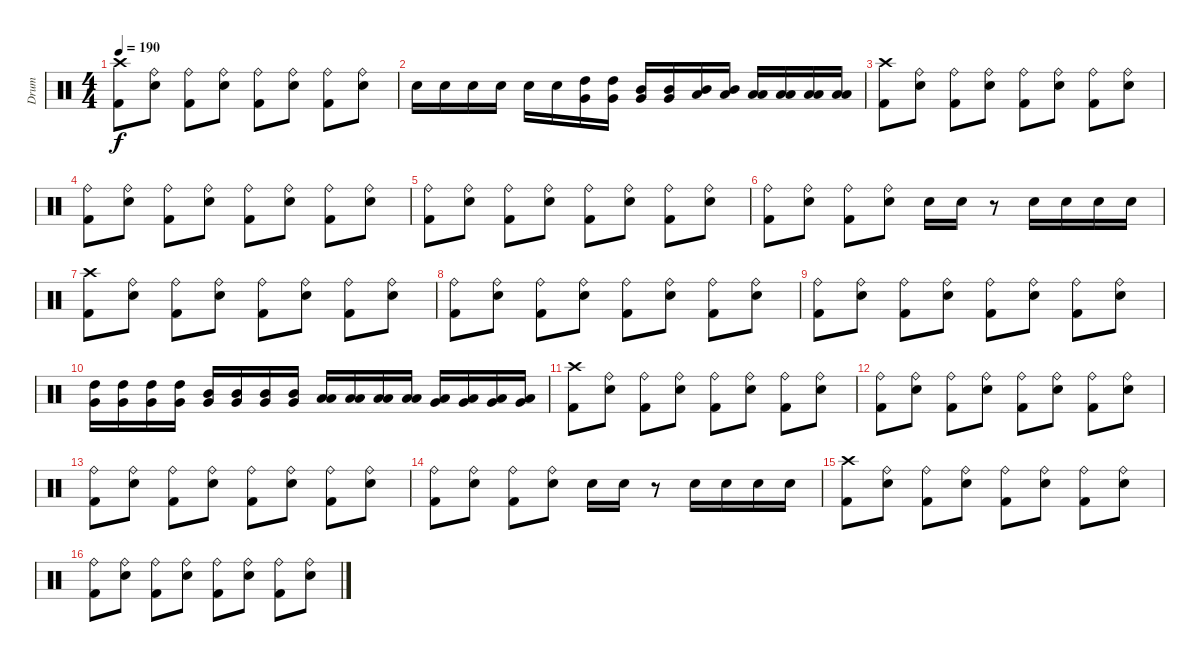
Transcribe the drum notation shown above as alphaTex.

\track ("Drum" "Drum") {instrument percussion}
\staff {score}
\articulation defaults
\ts (4 4)
\tempo 190
\clef neutral
\ks c
("Crash high (hit)" "Kick (hit) 2").8{dy f} ("Ride (bell)" "Snare (hit) 2").8 ("Ride (bell)" "Kick (hit) 2").8 ("Ride (bell)" "Snare (hit) 2").8 ("Ride (bell)" "Kick (hit) 2").8 ("Ride (bell)" "Snare (hit) 2").8 ("Ride (bell)" "Kick (hit) 2").8 ("Ride (bell)" "Snare (hit) 2").8 |
"Snare (hit) 2".16 "Snare (hit) 2".16 "Snare (hit) 2".16 "Snare (hit) 2".16 "Snare (hit) 2".16 "Snare (hit) 2".16 ("High Tom (hit)" "Very Low Tom (hit)").16 ("High Tom (hit)" "Very Low Tom (hit)").16 ("Mid Tom (hit)" "Very Low Tom (hit)").16 ("Mid Tom (hit)" "Very Low Tom (hit)").16 ("Mid Tom (hit)" "Low Floor Tom (hit)").16 ("Mid Tom (hit)" "Low Floor Tom (hit)").16 ("Low Tom (hit)" "Low Floor Tom (hit)").16 ("Low Tom (hit)" "Low Floor Tom (hit)").16 ("Low Tom (hit)" "Low Floor Tom (hit)").16 ("Low Tom (hit)" "Low Floor Tom (hit)").16 |
("Crash high (hit)" "Kick (hit) 2").8 ("Ride (bell)" "Snare (hit) 2").8 ("Ride (bell)" "Kick (hit) 2").8 ("Ride (bell)" "Snare (hit) 2").8 ("Ride (bell)" "Kick (hit) 2").8 ("Ride (bell)" "Snare (hit) 2").8 ("Ride (bell)" "Kick (hit) 2").8 ("Ride (bell)" "Snare (hit) 2").8 |
("Ride (bell)" "Kick (hit) 2").8 ("Ride (bell)" "Snare (hit) 2").8 ("Ride (bell)" "Kick (hit) 2").8 ("Ride (bell)" "Snare (hit) 2").8 ("Ride (bell)" "Kick (hit) 2").8 ("Ride (bell)" "Snare (hit) 2").8 ("Ride (bell)" "Kick (hit) 2").8 ("Ride (bell)" "Snare (hit) 2").8 |
("Ride (bell)" "Kick (hit) 2").8 ("Ride (bell)" "Snare (hit) 2").8 ("Ride (bell)" "Kick (hit) 2").8 ("Ride (bell)" "Snare (hit) 2").8 ("Ride (bell)" "Kick (hit) 2").8 ("Ride (bell)" "Snare (hit) 2").8 ("Ride (bell)" "Kick (hit) 2").8 ("Ride (bell)" "Snare (hit) 2").8 |
("Ride (bell)" "Kick (hit) 2").8 ("Ride (bell)" "Snare (hit) 2").8 ("Ride (bell)" "Kick (hit) 2").8 ("Ride (bell)" "Snare (hit) 2").8 "Snare (hit) 2".16 "Snare (hit) 2".16 r.8 "Snare (hit) 2".16 "Snare (hit) 2".16 "Snare (hit) 2".16 "Snare (hit) 2".16 |
("Crash high (hit)" "Kick (hit) 2").8 ("Ride (bell)" "Snare (hit) 2").8 ("Ride (bell)" "Kick (hit) 2").8 ("Ride (bell)" "Snare (hit) 2").8 ("Ride (bell)" "Kick (hit) 2").8 ("Ride (bell)" "Snare (hit) 2").8 ("Ride (bell)" "Kick (hit) 2").8 ("Ride (bell)" "Snare (hit) 2").8 |
("Ride (bell)" "Kick (hit) 2").8 ("Ride (bell)" "Snare (hit) 2").8 ("Ride (bell)" "Kick (hit) 2").8 ("Ride (bell)" "Snare (hit) 2").8 ("Ride (bell)" "Kick (hit) 2").8 ("Ride (bell)" "Snare (hit) 2").8 ("Ride (bell)" "Kick (hit) 2").8 ("Ride (bell)" "Snare (hit) 2").8 |
("Ride (bell)" "Kick (hit) 2").8 ("Ride (bell)" "Snare (hit) 2").8 ("Ride (bell)" "Kick (hit) 2").8 ("Ride (bell)" "Snare (hit) 2").8 ("Ride (bell)" "Kick (hit) 2").8 ("Ride (bell)" "Snare (hit) 2").8 ("Ride (bell)" "Kick (hit) 2").8 ("Ride (bell)" "Snare (hit) 2").8 |
("High Tom (hit)" "Very Low Tom (hit)").16 ("High Tom (hit)" "Very Low Tom (hit)").16 ("High Tom (hit)" "Very Low Tom (hit)").16 ("High Tom (hit)" "Very Low Tom (hit)").16 ("Mid Tom (hit)" "Very Low Tom (hit)").16 ("Mid Tom (hit)" "Very Low Tom (hit)").16 ("Mid Tom (hit)" "Very Low Tom (hit)").16 ("Mid Tom (hit)" "Very Low Tom (hit)").16 ("Low Tom (hit)" "Low Floor Tom (hit)").16 ("Low Tom (hit)" "Low Floor Tom (hit)").16 ("Low Tom (hit)" "Low Floor Tom (hit)").16 ("Low Tom (hit)" "Low Floor Tom (hit)").16 ("Very Low Tom (hit)" "Low Floor Tom (hit)").16 ("Very Low Tom (hit)" "Low Floor Tom (hit)").16 ("Very Low Tom (hit)" "Low Floor Tom (hit)").16 ("Very Low Tom (hit)" "Low Floor Tom (hit)").16 |
("Crash high (hit)" "Kick (hit) 2").8 ("Ride (bell)" "Snare (hit) 2").8 ("Ride (bell)" "Kick (hit) 2").8 ("Ride (bell)" "Snare (hit) 2").8 ("Ride (bell)" "Kick (hit) 2").8 ("Ride (bell)" "Snare (hit) 2").8 ("Ride (bell)" "Kick (hit) 2").8 ("Ride (bell)" "Snare (hit) 2").8 |
("Ride (bell)" "Kick (hit) 2").8 ("Ride (bell)" "Snare (hit) 2").8 ("Ride (bell)" "Kick (hit) 2").8 ("Ride (bell)" "Snare (hit) 2").8 ("Ride (bell)" "Kick (hit) 2").8 ("Ride (bell)" "Snare (hit) 2").8 ("Ride (bell)" "Kick (hit) 2").8 ("Ride (bell)" "Snare (hit) 2").8 |
("Ride (bell)" "Kick (hit) 2").8 ("Ride (bell)" "Snare (hit) 2").8 ("Ride (bell)" "Kick (hit) 2").8 ("Ride (bell)" "Snare (hit) 2").8 ("Ride (bell)" "Kick (hit) 2").8 ("Ride (bell)" "Snare (hit) 2").8 ("Ride (bell)" "Kick (hit) 2").8 ("Ride (bell)" "Snare (hit) 2").8 |
("Ride (bell)" "Kick (hit) 2").8 ("Ride (bell)" "Snare (hit) 2").8 ("Ride (bell)" "Kick (hit) 2").8 ("Ride (bell)" "Snare (hit) 2").8 "Snare (hit) 2".16 "Snare (hit) 2".16 r.8 "Snare (hit) 2".16 "Snare (hit) 2".16 "Snare (hit) 2".16 "Snare (hit) 2".16 |
("Crash high (hit)" "Kick (hit) 2").8 ("Ride (bell)" "Snare (hit) 2").8 ("Ride (bell)" "Kick (hit) 2").8 ("Ride (bell)" "Snare (hit) 2").8 ("Ride (bell)" "Kick (hit) 2").8 ("Ride (bell)" "Snare (hit) 2").8 ("Ride (bell)" "Kick (hit) 2").8 ("Ride (bell)" "Snare (hit) 2").8 |
("Ride (bell)" "Kick (hit) 2").8 ("Ride (bell)" "Snare (hit) 2").8 ("Ride (bell)" "Kick (hit) 2").8 ("Ride (bell)" "Snare (hit) 2").8 ("Ride (bell)" "Kick (hit) 2").8 ("Ride (bell)" "Snare (hit) 2").8 ("Ride (bell)" "Kick (hit) 2").8 ("Ride (bell)" "Snare (hit) 2").8
